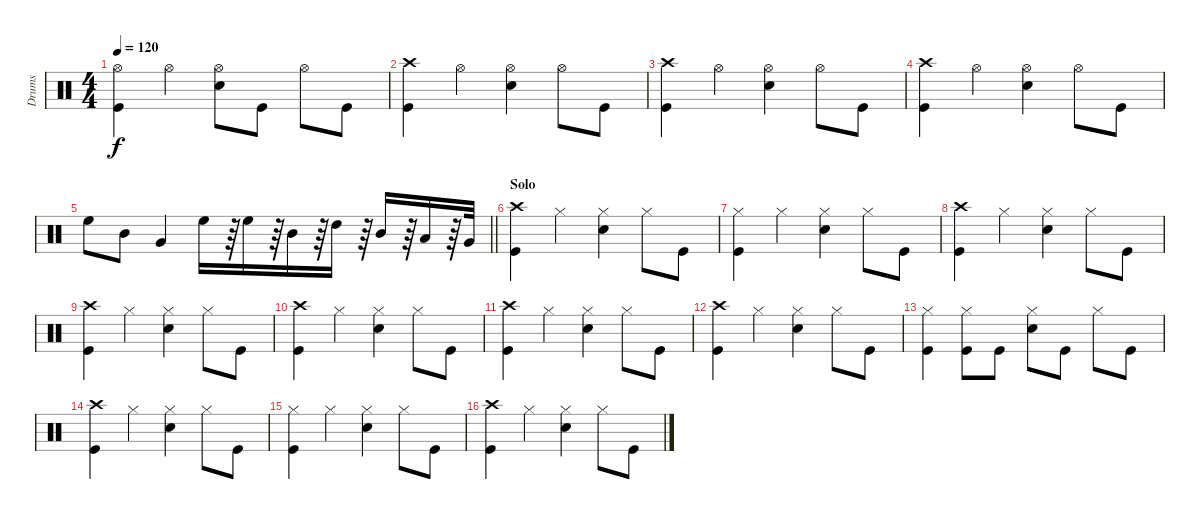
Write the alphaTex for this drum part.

\track ("Drums" "Drums") {instrument percussion}
\staff {score}
\articulation defaults
\ts (4 4)
\tempo 120
\clef neutral
\ks c
("Hi-Hat (open)" "Kick (hit)").4{dy f} "Hi-Hat (open)".4 ("Hi-Hat (open)" "Snare (hit) 2").8 "Kick (hit)".8 "Hi-Hat (open)".8 "Kick (hit)".8 |
("Crash high (hit)" "Kick (hit)").4 "Hi-Hat (open)".4 ("Hi-Hat (open)" "Snare (hit) 2").4 "Hi-Hat (open)".8 "Kick (hit)".8 |
("Crash high (hit)" "Kick (hit)").4 "Hi-Hat (open)".4 ("Hi-Hat (open)" "Snare (hit) 2").4 "Hi-Hat (open)".8 "Kick (hit)".8 |
("Crash high (hit)" "Kick (hit)").4 "Hi-Hat (open)".4 ("Hi-Hat (open)" "Snare (hit) 2").4 "Hi-Hat (open)".8 "Kick (hit)".8 |
\barLineRight lightlight "High Floor Tom (hit)".8 "Mid Tom (hit)".8 "Very Low Tom (hit)".4 "High Floor Tom (hit)".16
r.64 "High Floor Tom (hit)".16 r.64 "Mid Tom (hit)".16 r.64 "High Tom (hit)".16 r.64 "Mid Tom (hit)".16 r.64 "Low Tom (hit)".16 r.64 "Very Low Tom (hit)".32 |
\section ("" "Solo")
("Crash high (hit)" "Kick (hit)").4 "Hi-Hat (closed)".4 ("Hi-Hat (closed)" "Snare (hit) 2").4 "Hi-Hat (closed)".8 "Kick (hit)".8 |
("Hi-Hat (closed)" "Kick (hit)").4 "Hi-Hat (closed)".4 ("Hi-Hat (closed)" "Snare (hit) 2").4 "Hi-Hat (closed)".8 "Kick (hit)".8 |
("Crash high (hit)" "Kick (hit)").4 "Hi-Hat (closed)".4 ("Hi-Hat (closed)" "Snare (hit) 2").4 "Hi-Hat (closed)".8 "Kick (hit)".8 |
("Crash high (hit)" "Kick (hit)").4 "Hi-Hat (closed)".4 ("Hi-Hat (closed)" "Snare (hit) 2").4 "Hi-Hat (closed)".8 "Kick (hit)".8 |
("Crash high (hit)" "Kick (hit)").4 "Hi-Hat (closed)".4 ("Hi-Hat (closed)" "Snare (hit) 2").4 "Hi-Hat (closed)".8 "Kick (hit)".8 |
("Crash high (hit)" "Kick (hit)").4 "Hi-Hat (closed)".4 ("Hi-Hat (closed)" "Snare (hit) 2").4 "Hi-Hat (closed)".8 "Kick (hit)".8 |
("Crash high (hit)" "Kick (hit)").4 "Hi-Hat (closed)".4 ("Hi-Hat (closed)" "Snare (hit) 2").4 "Hi-Hat (closed)".8 "Kick (hit)".8 |
("Hi-Hat (closed)" "Kick (hit)").4 ("Hi-Hat (closed)" "Kick (hit)").8 "Kick (hit)".8 ("Hi-Hat (closed)" "Snare (hit) 2").8 "Kick (hit)".8 "Hi-Hat (closed)".8 "Kick (hit)".8 |
("Crash high (hit)" "Kick (hit)").4 "Hi-Hat (closed)".4 ("Hi-Hat (closed)" "Snare (hit) 2").4 "Hi-Hat (closed)".8 "Kick (hit)".8 |
("Hi-Hat (closed)" "Kick (hit)").4 "Hi-Hat (closed)".4 ("Hi-Hat (closed)" "Snare (hit) 2").4 "Hi-Hat (closed)".8 "Kick (hit)".8 |
("Crash high (hit)" "Kick (hit)").4 "Hi-Hat (closed)".4 ("Hi-Hat (closed)" "Snare (hit) 2").4 "Hi-Hat (closed)".8 "Kick (hit)".8
